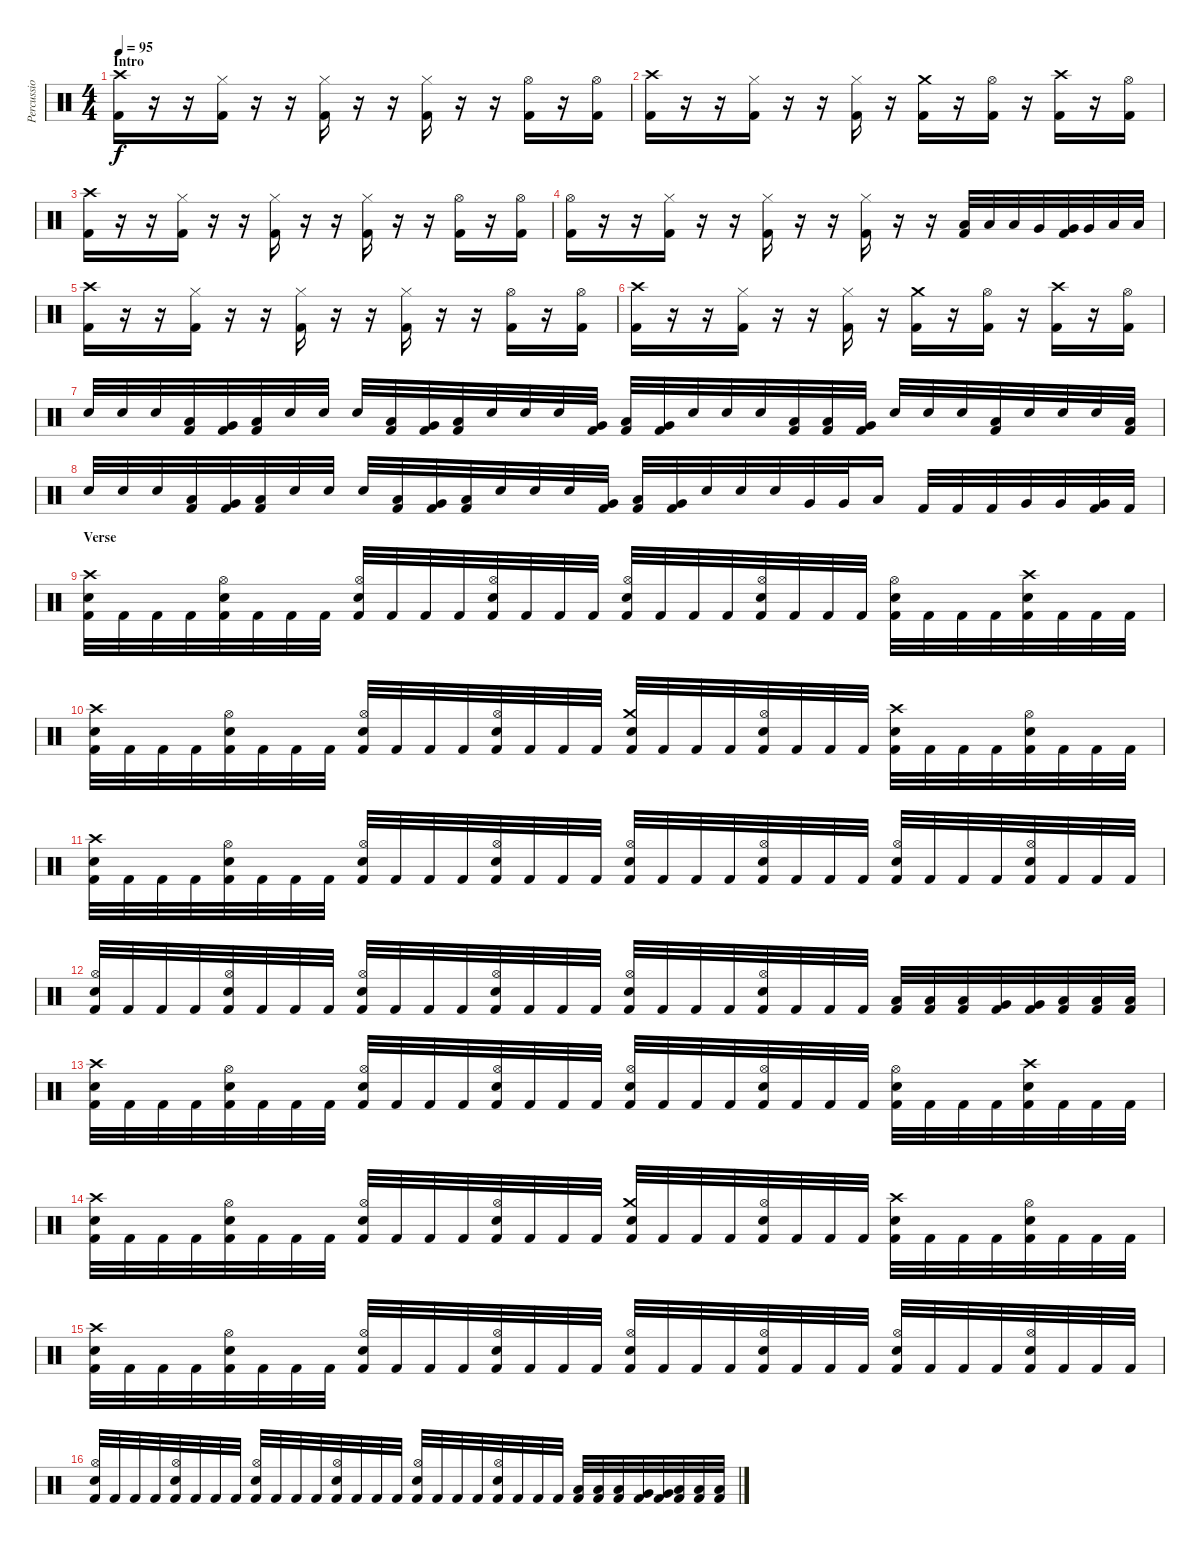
\track (" Percussions" " Percussio") {instrument percussion}
\staff {score}
\articulation defaults
\ts (4 4)
\section ("" "Intro")
\tempo 95
\clef neutral
\ks c
("Crash high (hit)" "Kick (hit) 2").16{dy f} r.16 r.16 ("Hi-Hat (closed)" "Kick (hit) 2").16 r.16 r.16 ("Hi-Hat (closed)" "Kick (hit) 2").16 r.16 r.16 ("Hi-Hat (closed)" "Kick (hit) 2").16 r.16 r.16 ("Hi-Hat (open)" "Kick (hit) 2").16 r.16 ("Hi-Hat (open)" "Kick (hit) 2").16 |
("Crash high (hit)" "Kick (hit) 2").16 r.16 r.16 ("Hi-Hat (closed)" "Kick (hit) 2").16 r.16 r.16 ("Hi-Hat (closed)" "Kick (hit) 2").16 r.16 ("Crash medium (hit)" "Kick (hit) 2").16 r.16 ("Hi-Hat (open)" "Kick (hit) 2").16 r.16 ("Crash high (hit)" "Kick (hit) 2").16 r.16 ("Hi-Hat (open)" "Kick (hit) 2").16 |
("Crash high (hit)" "Kick (hit) 2").16 r.16 r.16 ("Hi-Hat (closed)" "Kick (hit) 2").16 r.16 r.16 ("Hi-Hat (closed)" "Kick (hit) 2").16 r.16 r.16 ("Hi-Hat (closed)" "Kick (hit) 2").16 r.16 r.16 ("Hi-Hat (open)" "Kick (hit) 2").16 r.16 ("Hi-Hat (open)" "Kick (hit) 2").16 |
("Hi-Hat (open)" "Kick (hit) 2").16 r.16 r.16 ("Hi-Hat (closed)" "Kick (hit) 2").16 r.16 r.16 ("Hi-Hat (closed)" "Kick (hit) 2").16 r.16 r.16 ("Hi-Hat (closed)" "Kick (hit) 2").16 r.16 r.16 ("Low Tom (hit)" "Kick (hit) 2").32 "Low Tom (hit)".32 "Low Tom (hit)".32 "Very Low Tom (hit)".32 ("Very Low Tom (hit)" "Kick (hit) 2").32 "Very Low Tom (hit)".32 "Low Floor Tom (hit)".32 "Low Floor Tom (hit)".32 |
("Crash high (hit)" "Kick (hit) 2").16 r.16 r.16 ("Hi-Hat (closed)" "Kick (hit) 2").16 r.16 r.16 ("Hi-Hat (closed)" "Kick (hit) 2").16 r.16 r.16 ("Hi-Hat (closed)" "Kick (hit) 2").16 r.16 r.16 ("Hi-Hat (open)" "Kick (hit) 2").16 r.16 ("Hi-Hat (open)" "Kick (hit) 2").16 |
("Crash high (hit)" "Kick (hit) 2").16 r.16 r.16 ("Hi-Hat (closed)" "Kick (hit) 2").16 r.16 r.16 ("Hi-Hat (closed)" "Kick (hit) 2").16 r.16 ("Crash medium (hit)" "Kick (hit) 2").16 r.16 ("Hi-Hat (open)" "Kick (hit) 2").16 r.16 ("Crash high (hit)" "Kick (hit) 2").16 r.16 ("Hi-Hat (open)" "Kick (hit) 2").16 |
"Electric Snare (hit)".32 "Electric Snare (hit)".32 "Electric Snare (hit)".32 ("Low Tom (hit)" "Kick (hit) 2").32 ("Very Low Tom (hit)" "Kick (hit) 2").32 ("Low Tom (hit)" "Kick (hit) 2").32 "Electric Snare (hit)".32 "Electric Snare (hit)".32 "Electric Snare (hit)".32 ("Low Tom (hit)" "Kick (hit) 2").32 ("Very Low Tom (hit)" "Kick (hit) 2").32 ("Low Tom (hit)" "Kick (hit) 2").32 "Electric Snare (hit)".32 "Electric Snare (hit)".32 "Electric Snare (hit)".32 ("Very Low Tom (hit)" "Kick (hit) 2").32 ("Low Tom (hit)" "Kick (hit) 2").32 ("Very Low Tom (hit)" "Kick (hit) 2").32 "Electric Snare (hit)".32 "Electric Snare (hit)".32 "Electric Snare (hit)".32 ("Low Tom (hit)" "Kick (hit) 2").32 ("Low Tom (hit)" "Kick (hit) 2").32 ("Very Low Tom (hit)" "Kick (hit) 2").32 "Electric Snare (hit)".32 "Electric Snare (hit)".32 "Electric Snare (hit)".32 ("Low Tom (hit)" "Kick (hit) 2").32 "Electric Snare (hit)".32 "Electric Snare (hit)".32 "Electric Snare (hit)".32 ("Low Tom (hit)" "Kick (hit) 2").32 |
"Electric Snare (hit)".32 "Electric Snare (hit)".32 "Electric Snare (hit)".32 ("Low Tom (hit)" "Kick (hit) 2").32 ("Very Low Tom (hit)" "Kick (hit) 2").32 ("Low Tom (hit)" "Kick (hit) 2").32 "Electric Snare (hit)".32 "Electric Snare (hit)".32 "Electric Snare (hit)".32 ("Low Tom (hit)" "Kick (hit) 2").32 ("Very Low Tom (hit)" "Kick (hit) 2").32 ("Low Tom (hit)" "Kick (hit) 2").32 "Electric Snare (hit)".32 "Electric Snare (hit)".32 "Electric Snare (hit)".32 ("Very Low Tom (hit)" "Kick (hit) 2").32 ("Low Tom (hit)" "Kick (hit) 2").32 ("Very Low Tom (hit)" "Kick (hit) 2").32 "Electric Snare (hit)".32 "Electric Snare (hit)".32 "Electric Snare (hit)".32 "Very Low Tom (hit)".32 "Very Low Tom (hit)".32 "Low Tom (hit)".16 "Kick (hit) 2".32 "Kick (hit) 2".32 "Kick (hit) 2".32 "Very Low Tom (hit)".32 "Very Low Tom (hit)".32 ("Very Low Tom (hit)" "Kick (hit) 2").32 "Kick (hit) 2".32 |
\section ("" "Verse")
("Crash high (hit)" "Electric Snare (hit)" "Kick (hit) 2").32 "Kick (hit) 2".32 "Kick (hit) 2".32 "Kick (hit) 2".32 ("Hi-Hat (open)" "Electric Snare (hit)" "Kick (hit) 2").32 "Kick (hit) 2".32 "Kick (hit) 2".32 "Kick (hit) 2".32 ("Hi-Hat (open)" "Electric Snare (hit)" "Kick (hit) 2").32 "Kick (hit) 2".32 "Kick (hit) 2".32 "Kick (hit) 2".32 ("Hi-Hat (open)" "Electric Snare (hit)" "Kick (hit) 2").32 "Kick (hit) 2".32 "Kick (hit) 2".32 "Kick (hit) 2".32 ("Hi-Hat (open)" "Electric Snare (hit)" "Kick (hit) 2").32 "Kick (hit) 2".32 "Kick (hit) 2".32 "Kick (hit) 2".32 ("Hi-Hat (open)" "Electric Snare (hit)" "Kick (hit) 2").32 "Kick (hit) 2".32 "Kick (hit) 2".32 "Kick (hit) 2".32 ("Hi-Hat (open)" "Electric Snare (hit)" "Kick (hit) 2").32 "Kick (hit) 2".32 "Kick (hit) 2".32 "Kick (hit) 2".32 ("Crash high (hit)" "Electric Snare (hit)" "Kick (hit) 2").32 "Kick (hit) 2".32 "Kick (hit) 2".32 "Kick (hit) 2".32 |
("Crash high (hit)" "Electric Snare (hit)" "Kick (hit) 2").32 "Kick (hit) 2".32 "Kick (hit) 2".32 "Kick (hit) 2".32 ("Hi-Hat (open)" "Electric Snare (hit)" "Kick (hit) 2").32 "Kick (hit) 2".32 "Kick (hit) 2".32 "Kick (hit) 2".32 ("Hi-Hat (open)" "Electric Snare (hit)" "Kick (hit) 2").32 "Kick (hit) 2".32 "Kick (hit) 2".32 "Kick (hit) 2".32 ("Hi-Hat (open)" "Electric Snare (hit)" "Kick (hit) 2").32 "Kick (hit) 2".32 "Kick (hit) 2".32 "Kick (hit) 2".32 ("Crash medium (hit)" "Electric Snare (hit)" "Kick (hit) 2").32 "Kick (hit) 2".32 "Kick (hit) 2".32 "Kick (hit) 2".32 ("Hi-Hat (open)" "Electric Snare (hit)" "Kick (hit) 2").32 "Kick (hit) 2".32 "Kick (hit) 2".32 "Kick (hit) 2".32 ("Crash high (hit)" "Electric Snare (hit)" "Kick (hit) 2").32 "Kick (hit) 2".32 "Kick (hit) 2".32 "Kick (hit) 2".32 ("Hi-Hat (open)" "Electric Snare (hit)" "Kick (hit) 2").32 "Kick (hit) 2".32 "Kick (hit) 2".32 "Kick (hit) 2".32 |
("Crash high (hit)" "Electric Snare (hit)" "Kick (hit) 2").32 "Kick (hit) 2".32 "Kick (hit) 2".32 "Kick (hit) 2".32 ("Hi-Hat (open)" "Electric Snare (hit)" "Kick (hit) 2").32 "Kick (hit) 2".32 "Kick (hit) 2".32 "Kick (hit) 2".32 ("Hi-Hat (open)" "Electric Snare (hit)" "Kick (hit) 2").32 "Kick (hit) 2".32 "Kick (hit) 2".32 "Kick (hit) 2".32 ("Hi-Hat (open)" "Electric Snare (hit)" "Kick (hit) 2").32 "Kick (hit) 2".32 "Kick (hit) 2".32 "Kick (hit) 2".32 ("Hi-Hat (open)" "Electric Snare (hit)" "Kick (hit) 2").32 "Kick (hit) 2".32 "Kick (hit) 2".32 "Kick (hit) 2".32 ("Hi-Hat (open)" "Electric Snare (hit)" "Kick (hit) 2").32 "Kick (hit) 2".32 "Kick (hit) 2".32 "Kick (hit) 2".32 ("Hi-Hat (open)" "Electric Snare (hit)" "Kick (hit) 2").32 "Kick (hit) 2".32 "Kick (hit) 2".32 "Kick (hit) 2".32 ("Hi-Hat (open)" "Electric Snare (hit)" "Kick (hit) 2").32 "Kick (hit) 2".32 "Kick (hit) 2".32 "Kick (hit) 2".32 |
("Hi-Hat (open)" "Electric Snare (hit)" "Kick (hit) 2").32 "Kick (hit) 2".32 "Kick (hit) 2".32 "Kick (hit) 2".32 ("Hi-Hat (open)" "Electric Snare (hit)" "Kick (hit) 2").32 "Kick (hit) 2".32 "Kick (hit) 2".32 "Kick (hit) 2".32 ("Hi-Hat (open)" "Electric Snare (hit)" "Kick (hit) 2").32 "Kick (hit) 2".32 "Kick (hit) 2".32 "Kick (hit) 2".32 ("Hi-Hat (open)" "Electric Snare (hit)" "Kick (hit) 2").32 "Kick (hit) 2".32 "Kick (hit) 2".32 "Kick (hit) 2".32 ("Hi-Hat (open)" "Electric Snare (hit)" "Kick (hit) 2").32 "Kick (hit) 2".32 "Kick (hit) 2".32 "Kick (hit) 2".32 ("Hi-Hat (open)" "Electric Snare (hit)" "Kick (hit) 2").32 "Kick (hit) 2".32 "Kick (hit) 2".32 "Kick (hit) 2".32 ("Low Tom (hit)" "Kick (hit) 2").32 ("Low Tom (hit)" "Kick (hit) 2").32 ("Low Tom (hit)" "Kick (hit) 2").32 ("Very Low Tom (hit)" "Kick (hit) 2").32 ("Very Low Tom (hit)" "Kick (hit) 2").32 ("Low Floor Tom (hit)" "Kick (hit) 2").32 ("Low Floor Tom (hit)" "Kick (hit) 2").32 ("Low Floor Tom (hit)" "Kick (hit) 2").32 |
("Crash high (hit)" "Electric Snare (hit)" "Kick (hit) 2").32 "Kick (hit) 2".32 "Kick (hit) 2".32 "Kick (hit) 2".32 ("Hi-Hat (open)" "Electric Snare (hit)" "Kick (hit) 2").32 "Kick (hit) 2".32 "Kick (hit) 2".32 "Kick (hit) 2".32 ("Hi-Hat (open)" "Electric Snare (hit)" "Kick (hit) 2").32 "Kick (hit) 2".32 "Kick (hit) 2".32 "Kick (hit) 2".32 ("Hi-Hat (open)" "Electric Snare (hit)" "Kick (hit) 2").32 "Kick (hit) 2".32 "Kick (hit) 2".32 "Kick (hit) 2".32 ("Hi-Hat (open)" "Electric Snare (hit)" "Kick (hit) 2").32 "Kick (hit) 2".32 "Kick (hit) 2".32 "Kick (hit) 2".32 ("Hi-Hat (open)" "Electric Snare (hit)" "Kick (hit) 2").32 "Kick (hit) 2".32 "Kick (hit) 2".32 "Kick (hit) 2".32 ("Hi-Hat (open)" "Electric Snare (hit)" "Kick (hit) 2").32 "Kick (hit) 2".32 "Kick (hit) 2".32 "Kick (hit) 2".32 ("Crash high (hit)" "Electric Snare (hit)" "Kick (hit) 2").32 "Kick (hit) 2".32 "Kick (hit) 2".32 "Kick (hit) 2".32 |
("Crash high (hit)" "Electric Snare (hit)" "Kick (hit) 2").32 "Kick (hit) 2".32 "Kick (hit) 2".32 "Kick (hit) 2".32 ("Hi-Hat (open)" "Electric Snare (hit)" "Kick (hit) 2").32 "Kick (hit) 2".32 "Kick (hit) 2".32 "Kick (hit) 2".32 ("Hi-Hat (open)" "Electric Snare (hit)" "Kick (hit) 2").32 "Kick (hit) 2".32 "Kick (hit) 2".32 "Kick (hit) 2".32 ("Hi-Hat (open)" "Electric Snare (hit)" "Kick (hit) 2").32 "Kick (hit) 2".32 "Kick (hit) 2".32 "Kick (hit) 2".32 ("Crash medium (hit)" "Electric Snare (hit)" "Kick (hit) 2").32 "Kick (hit) 2".32 "Kick (hit) 2".32 "Kick (hit) 2".32 ("Hi-Hat (open)" "Electric Snare (hit)" "Kick (hit) 2").32 "Kick (hit) 2".32 "Kick (hit) 2".32 "Kick (hit) 2".32 ("Crash high (hit)" "Electric Snare (hit)" "Kick (hit) 2").32 "Kick (hit) 2".32 "Kick (hit) 2".32 "Kick (hit) 2".32 ("Hi-Hat (open)" "Electric Snare (hit)" "Kick (hit) 2").32 "Kick (hit) 2".32 "Kick (hit) 2".32 "Kick (hit) 2".32 |
("Crash high (hit)" "Electric Snare (hit)" "Kick (hit) 2").32 "Kick (hit) 2".32 "Kick (hit) 2".32 "Kick (hit) 2".32 ("Hi-Hat (open)" "Electric Snare (hit)" "Kick (hit) 2").32 "Kick (hit) 2".32 "Kick (hit) 2".32 "Kick (hit) 2".32 ("Hi-Hat (open)" "Electric Snare (hit)" "Kick (hit) 2").32 "Kick (hit) 2".32 "Kick (hit) 2".32 "Kick (hit) 2".32 ("Hi-Hat (open)" "Electric Snare (hit)" "Kick (hit) 2").32 "Kick (hit) 2".32 "Kick (hit) 2".32 "Kick (hit) 2".32 ("Hi-Hat (open)" "Electric Snare (hit)" "Kick (hit) 2").32 "Kick (hit) 2".32 "Kick (hit) 2".32 "Kick (hit) 2".32 ("Hi-Hat (open)" "Electric Snare (hit)" "Kick (hit) 2").32 "Kick (hit) 2".32 "Kick (hit) 2".32 "Kick (hit) 2".32 ("Hi-Hat (open)" "Electric Snare (hit)" "Kick (hit) 2").32 "Kick (hit) 2".32 "Kick (hit) 2".32 "Kick (hit) 2".32 ("Hi-Hat (open)" "Electric Snare (hit)" "Kick (hit) 2").32 "Kick (hit) 2".32 "Kick (hit) 2".32 "Kick (hit) 2".32 |
("Hi-Hat (open)" "Electric Snare (hit)" "Kick (hit) 2").32 "Kick (hit) 2".32 "Kick (hit) 2".32 "Kick (hit) 2".32 ("Hi-Hat (open)" "Electric Snare (hit)" "Kick (hit) 2").32 "Kick (hit) 2".32 "Kick (hit) 2".32 "Kick (hit) 2".32 ("Hi-Hat (open)" "Electric Snare (hit)" "Kick (hit) 2").32 "Kick (hit) 2".32 "Kick (hit) 2".32 "Kick (hit) 2".32 ("Hi-Hat (open)" "Electric Snare (hit)" "Kick (hit) 2").32 "Kick (hit) 2".32 "Kick (hit) 2".32 "Kick (hit) 2".32 ("Hi-Hat (open)" "Electric Snare (hit)" "Kick (hit) 2").32 "Kick (hit) 2".32 "Kick (hit) 2".32 "Kick (hit) 2".32 ("Hi-Hat (open)" "Electric Snare (hit)" "Kick (hit) 2").32 "Kick (hit) 2".32 "Kick (hit) 2".32 "Kick (hit) 2".32 ("Low Tom (hit)" "Kick (hit) 2").32 ("Low Tom (hit)" "Kick (hit) 2").32 ("Low Tom (hit)" "Kick (hit) 2").32 ("Very Low Tom (hit)" "Kick (hit) 2").32 ("Very Low Tom (hit)" "Kick (hit) 2").32 ("Low Floor Tom (hit)" "Kick (hit) 2").32 ("Low Floor Tom (hit)" "Kick (hit) 2").32 ("Low Floor Tom (hit)" "Kick (hit) 2").32
